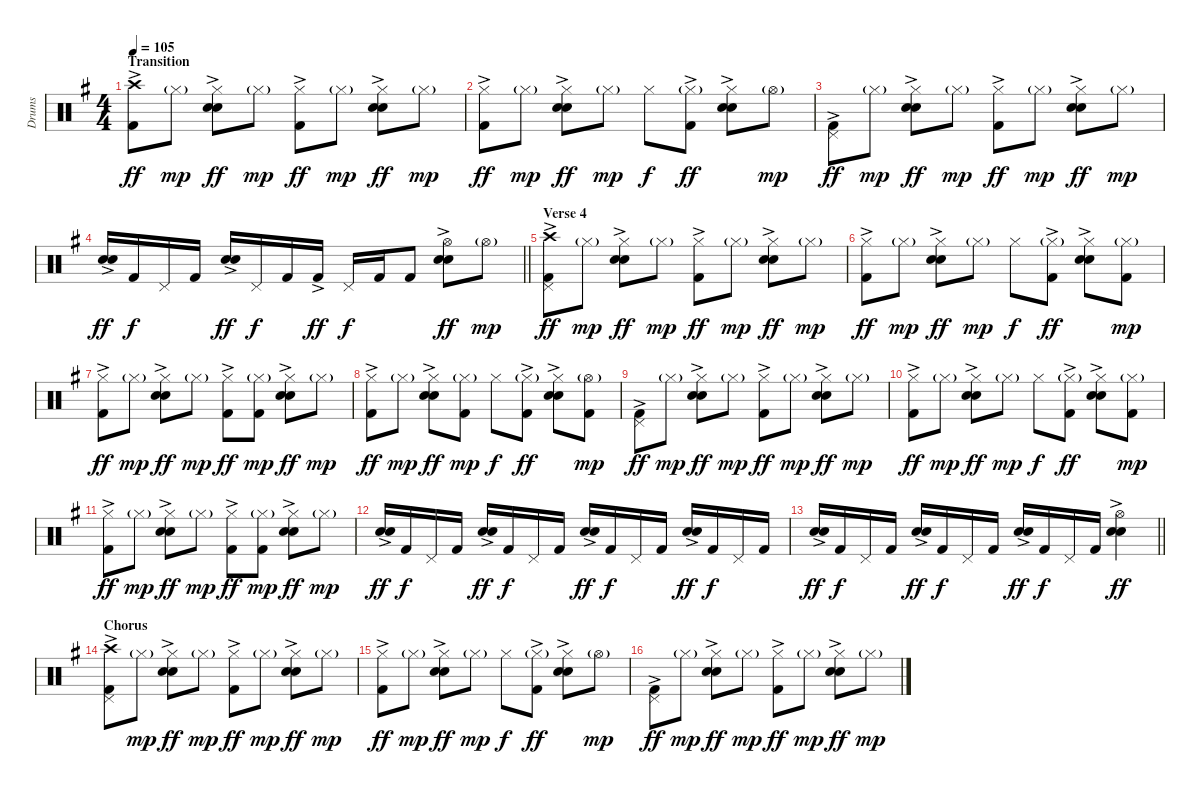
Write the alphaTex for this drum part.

\track ("Drums" "Drums") {instrument percussion}
\staff {score}
\articulation defaults
\ts (4 4)
\section ("" "Transition")
\tempo 105
\clef neutral
\ks g
("Crash high (hit)" "Kick (hit) 2"{ac}).8{dy ff} "Hi-Hat (closed)"{g}.8{dy mp} ("Hi-Hat (closed)" "Electric Snare (hit)"{ac} "Snare (hit) 2").8{dy ff} "Hi-Hat (closed)"{g}.8{dy mp} ("Hi-Hat (closed)" "Kick (hit) 2"{ac}).8{dy ff} "Hi-Hat (closed)"{g}.8{dy mp} ("Hi-Hat (closed)" "Electric Snare (hit)"{ac} "Snare (hit) 2").8{dy ff} "Hi-Hat (closed)"{g}.8{dy mp} |
("Hi-Hat (closed)" "Kick (hit) 2"{ac}).8{dy ff} "Hi-Hat (closed)"{g}.8{dy mp} ("Hi-Hat (closed)" "Electric Snare (hit)"{ac} "Snare (hit) 2").8{dy ff} "Hi-Hat (closed)"{g}.8{dy mp} "Hi-Hat (closed)".8{dy f} ("Hi-Hat (closed)"{g} "Kick (hit) 2"{ac}).8{dy ff} ("Hi-Hat (closed)" "Electric Snare (hit)"{ac} "Snare (hit) 2").8 "Hi-Hat (open)"{g}.8{dy mp} |
("Pedal Hi-Hat (hit)" "Kick (hit) 2"{ac}).8{dy ff} "Hi-Hat (closed)"{g}.8{dy mp} ("Hi-Hat (closed)" "Electric Snare (hit)"{ac} "Snare (hit) 2").8{dy ff} "Hi-Hat (closed)"{g}.8{dy mp} ("Hi-Hat (closed)" "Kick (hit) 2"{ac}).8{dy ff} "Hi-Hat (closed)"{g}.8{dy mp} ("Hi-Hat (closed)" "Electric Snare (hit)"{ac} "Snare (hit) 2").8{dy ff} "Hi-Hat (closed)"{g}.8{dy mp} |
\barLineRight lightlight
("Electric Snare (hit)"{ac} "Snare (hit) 2").16{dy ff} "Kick (hit) 2".16{dy f} "Pedal Hi-Hat (hit)".16 "Kick (hit) 2".16 ("Electric Snare (hit)"{ac} "Snare (hit) 2").16{dy ff} "Pedal Hi-Hat (hit)".16{dy f} "Kick (hit) 2".16 "Kick (hit) 2"{ac}.16{dy ff} "Pedal Hi-Hat (hit)".16{dy f} "Kick (hit) 2".16 "Kick (hit) 2".8 ("Hi-Hat (open)" "Electric Snare (hit)"{ac} "Snare (hit) 2").8{dy ff} "Hi-Hat (open)"{g}.8{dy mp} |
\section ("" "Verse 4")
("Pedal Hi-Hat (hit)" "Crash high (hit)" "Kick (hit) 2"{ac}).8{dy ff} "Hi-Hat (closed)"{g}.8{dy mp} ("Hi-Hat (closed)" "Electric Snare (hit)"{ac} "Snare (hit) 2").8{dy ff} "Hi-Hat (closed)"{g}.8{dy mp} ("Hi-Hat (closed)" "Kick (hit) 2"{ac}).8{dy ff} "Hi-Hat (closed)"{g}.8{dy mp} ("Hi-Hat (closed)" "Electric Snare (hit)"{ac} "Snare (hit) 2").8{dy ff} "Hi-Hat (closed)"{g}.8{dy mp} |
("Hi-Hat (closed)" "Kick (hit) 2"{ac}).8{dy ff} "Hi-Hat (closed)"{g}.8{dy mp} ("Hi-Hat (closed)" "Electric Snare (hit)"{ac} "Snare (hit) 2").8{dy ff} "Hi-Hat (closed)"{g}.8{dy mp} "Hi-Hat (closed)".8{dy f} ("Hi-Hat (closed)"{g} "Kick (hit) 2"{ac}).8{dy ff} ("Hi-Hat (closed)" "Electric Snare (hit)"{ac} "Snare (hit) 2").8 ("Hi-Hat (closed)"{g} "Kick (hit) 2").8{dy mp} |
("Hi-Hat (closed)" "Kick (hit) 2"{ac}).8{dy ff} "Hi-Hat (closed)"{g}.8{dy mp} ("Hi-Hat (closed)" "Electric Snare (hit)"{ac} "Snare (hit) 2").8{dy ff} "Hi-Hat (closed)"{g}.8{dy mp} ("Hi-Hat (closed)" "Kick (hit) 2"{ac}).8{dy ff} ("Hi-Hat (closed)"{g} "Kick (hit) 2").8{dy mp} ("Hi-Hat (closed)" "Electric Snare (hit)"{ac} "Snare (hit) 2").8{dy ff} "Hi-Hat (closed)"{g}.8{dy mp} |
("Hi-Hat (closed)" "Kick (hit) 2"{ac}).8{dy ff} "Hi-Hat (closed)"{g}.8{dy mp} ("Hi-Hat (closed)" "Electric Snare (hit)"{ac} "Snare (hit) 2").8{dy ff} ("Hi-Hat (closed)"{g} "Kick (hit) 2").8{dy mp} "Hi-Hat (closed)".8{dy f} ("Hi-Hat (closed)"{g} "Kick (hit) 2"{ac}).8{dy ff} ("Hi-Hat (closed)" "Electric Snare (hit)"{ac} "Snare (hit) 2").8 ("Hi-Hat (open)"{g} "Kick (hit) 2").8{dy mp} |
("Pedal Hi-Hat (hit)" "Kick (hit) 2"{ac}).8{dy ff} "Hi-Hat (closed)"{g}.8{dy mp} ("Hi-Hat (closed)" "Electric Snare (hit)"{ac} "Snare (hit) 2").8{dy ff} "Hi-Hat (closed)"{g}.8{dy mp} ("Hi-Hat (closed)" "Kick (hit) 2"{ac}).8{dy ff} "Hi-Hat (closed)"{g}.8{dy mp} ("Hi-Hat (closed)" "Electric Snare (hit)"{ac} "Snare (hit) 2").8{dy ff} "Hi-Hat (closed)"{g}.8{dy mp} |
("Hi-Hat (closed)" "Kick (hit) 2"{ac}).8{dy ff} "Hi-Hat (closed)"{g}.8{dy mp} ("Hi-Hat (closed)" "Electric Snare (hit)"{ac} "Snare (hit) 2").8{dy ff} "Hi-Hat (closed)"{g}.8{dy mp} "Hi-Hat (closed)".8{dy f} ("Hi-Hat (closed)"{g} "Kick (hit) 2"{ac}).8{dy ff} ("Hi-Hat (closed)" "Electric Snare (hit)"{ac} "Snare (hit) 2").8 ("Hi-Hat (closed)"{g} "Kick (hit) 2").8{dy mp} |
("Hi-Hat (closed)" "Kick (hit) 2"{ac}).8{dy ff} "Hi-Hat (closed)"{g}.8{dy mp} ("Hi-Hat (closed)" "Electric Snare (hit)"{ac} "Snare (hit) 2").8{dy ff} "Hi-Hat (closed)"{g}.8{dy mp} ("Hi-Hat (closed)" "Kick (hit) 2"{ac}).8{dy ff} ("Hi-Hat (closed)"{g} "Kick (hit) 2").8{dy mp} ("Hi-Hat (closed)" "Electric Snare (hit)"{ac} "Snare (hit) 2").8{dy ff} "Hi-Hat (closed)"{g}.8{dy mp} |
("Electric Snare (hit)"{ac} "Snare (hit) 2").16{dy ff} "Kick (hit) 2".16{dy f} "Pedal Hi-Hat (hit)".16 "Kick (hit) 2".16 ("Electric Snare (hit)"{ac} "Snare (hit) 2").16{dy ff} "Kick (hit) 2".16{dy f} "Pedal Hi-Hat (hit)".16 "Kick (hit) 2".16 ("Electric Snare (hit)"{ac} "Snare (hit) 2").16{dy ff} "Kick (hit) 2".16{dy f} "Pedal Hi-Hat (hit)".16 "Kick (hit) 2".16 ("Electric Snare (hit)"{ac} "Snare (hit) 2").16{dy ff} "Kick (hit) 2".16{dy f} "Pedal Hi-Hat (hit)".16 "Kick (hit) 2".16 |
\barLineRight lightlight
("Electric Snare (hit)"{ac} "Snare (hit) 2").16{dy ff} "Kick (hit) 2".16{dy f} "Pedal Hi-Hat (hit)".16 "Kick (hit) 2".16 ("Electric Snare (hit)"{ac} "Snare (hit) 2").16{dy ff} "Kick (hit) 2".16{dy f} "Pedal Hi-Hat (hit)".16 "Kick (hit) 2".16 ("Electric Snare (hit)"{ac} "Snare (hit) 2").16{dy ff} "Kick (hit) 2".16{dy f} "Pedal Hi-Hat (hit)".16 "Kick (hit) 2".16 ("Hi-Hat (open)" "Electric Snare (hit)"{ac} "Snare (hit) 2").4{dy ff} |
\section ("" "Chorus")
("Pedal Hi-Hat (hit)" "Crash high (hit)" "Kick (hit) 2"{ac}).8 "Hi-Hat (closed)"{g}.8{dy mp} ("Hi-Hat (closed)" "Electric Snare (hit)"{ac} "Snare (hit) 2").8{dy ff} "Hi-Hat (closed)"{g}.8{dy mp} ("Hi-Hat (closed)" "Kick (hit) 2"{ac}).8{dy ff} "Hi-Hat (closed)"{g}.8{dy mp} ("Hi-Hat (closed)" "Electric Snare (hit)"{ac} "Snare (hit) 2").8{dy ff} "Hi-Hat (closed)"{g}.8{dy mp} |
("Hi-Hat (closed)" "Kick (hit) 2"{ac}).8{dy ff} "Hi-Hat (closed)"{g}.8{dy mp} ("Hi-Hat (closed)" "Electric Snare (hit)"{ac} "Snare (hit) 2").8{dy ff} "Hi-Hat (closed)"{g}.8{dy mp} "Hi-Hat (closed)".8{dy f} ("Hi-Hat (closed)"{g} "Kick (hit) 2"{ac}).8{dy ff} ("Hi-Hat (closed)" "Electric Snare (hit)"{ac} "Snare (hit) 2").8 "Hi-Hat (open)"{g}.8{dy mp} |
("Pedal Hi-Hat (hit)" "Kick (hit) 2"{ac}).8{dy ff} "Hi-Hat (closed)"{g}.8{dy mp} ("Hi-Hat (closed)" "Electric Snare (hit)"{ac} "Snare (hit) 2").8{dy ff} "Hi-Hat (closed)"{g}.8{dy mp} ("Hi-Hat (closed)" "Kick (hit) 2"{ac}).8{dy ff} "Hi-Hat (closed)"{g}.8{dy mp} ("Hi-Hat (closed)" "Electric Snare (hit)"{ac} "Snare (hit) 2").8{dy ff} "Hi-Hat (closed)"{g}.8{dy mp}
